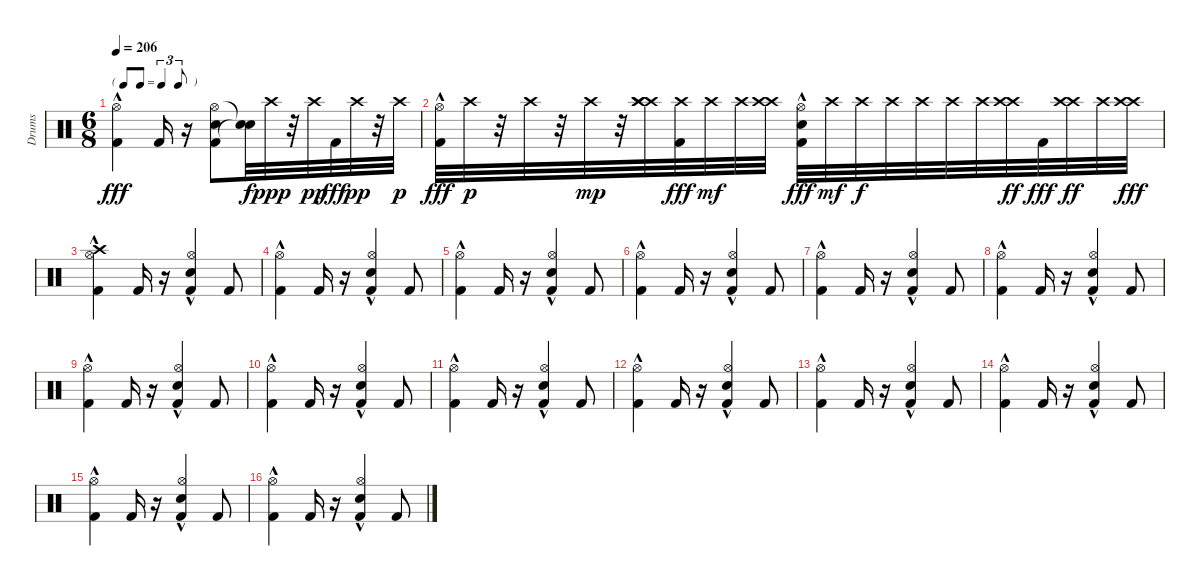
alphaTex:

\track ("Drums" "Drums") {instrument percussion}
\staff {score}
\articulation defaults
\ts (6 8)
\tf triplet8th
\tempo 206
\clef neutral
\ks c
("Kick (hit) 2"{hac} "Hi-Hat (open)").4{dy fff} "Kick (hit) 2".16 r.16 ("Kick (hit) 2" "Hi-Hat (open)" "Snare (hit) 2").8 ("Snare (hit)"{t} "Snare (hit)"{t}).32{dy f} "Crash high (hit)".32{dy ppp} r.32 "Crash high (hit)".32{dy pp} "Kick (hit) 2".32{dy fff} "Crash high (hit)".32{dy pp} r.32 "Crash high (hit)".32{dy p} |
("Hi-Hat (open)" "Kick (hit) 2"{hac}).32{dy fff} "Crash high (hit)".32{dy p} r.32 "Crash high (hit)".32 r.32 "Crash high (hit)".32{dy mp} r.32 ("Crash high (hit)" "Crash high (hit)" "Crash high (hit)").32 ("Crash high (hit)" "Kick (hit) 2").32{dy fff} "Crash high (hit)".32{dy mf} "Crash high (hit)".32 ("Crash high (hit)" "Crash high (hit)").32 ("Hi-Hat (open)" "Snare (hit) 2"{hac} "Kick (hit) 2").32{dy fff} "Crash high (hit)".32{dy mf} "Crash high (hit)".32{dy f} "Crash high (hit)".32 "Crash high (hit)".32 "Crash high (hit)".32 "Crash high (hit)".32 ("Crash high (hit)" "Crash high (hit)").32{dy ff} "Kick (hit) 2".32{dy fff} ("Crash high (hit)" "Crash high (hit)").32{dy ff} "Crash high (hit)".32 ("Crash high (hit)" "Crash high (hit)").32{dy fff} |
("Crash high (hit)" "Hi-Hat (open)" "Kick (hit) 2"{hac}).4 "Kick (hit) 2".16 r.16 ("Hi-Hat (open)" "Snare (hit) 2"{hac} "Kick (hit) 2").4 "Kick (hit) 2".8 |
("Hi-Hat (open)" "Kick (hit) 2"{hac}).4 "Kick (hit) 2".16 r.16 ("Hi-Hat (open)" "Snare (hit) 2"{hac} "Kick (hit) 2").4 "Kick (hit) 2".8 |
("Kick (hit) 2"{hac} "Hi-Hat (open)").4 "Kick (hit) 2".16 r.16 ("Kick (hit) 2" "Hi-Hat (open)" "Snare (hit) 2"{hac}).4 "Kick (hit) 2".8 |
("Hi-Hat (open)" "Kick (hit) 2"{hac}).4 "Kick (hit) 2".16 r.16 ("Hi-Hat (open)" "Snare (hit) 2"{hac} "Kick (hit) 2").4 "Kick (hit) 2".8 |
("Hi-Hat (open)" "Kick (hit) 2"{hac}).4 "Kick (hit) 2".16 r.16 ("Hi-Hat (open)" "Snare (hit) 2"{hac} "Kick (hit) 2").4 "Kick (hit) 2".8 |
("Hi-Hat (open)" "Kick (hit) 2"{hac}).4 "Kick (hit) 2".16 r.16 ("Hi-Hat (open)" "Snare (hit) 2"{hac} "Kick (hit) 2").4 "Kick (hit) 2".8 |
("Kick (hit) 2"{hac} "Hi-Hat (open)").4 "Kick (hit) 2".16 r.16 ("Kick (hit) 2" "Hi-Hat (open)" "Snare (hit) 2"{hac}).4 "Kick (hit) 2".8 |
("Hi-Hat (open)" "Kick (hit) 2"{hac}).4 "Kick (hit) 2".16 r.16 ("Hi-Hat (open)" "Snare (hit) 2"{hac} "Kick (hit) 2").4 "Kick (hit) 2".8 |
("Hi-Hat (open)" "Kick (hit) 2"{hac}).4 "Kick (hit) 2".16 r.16 ("Hi-Hat (open)" "Snare (hit) 2"{hac} "Kick (hit) 2").4 "Kick (hit) 2".8 |
("Hi-Hat (open)" "Kick (hit) 2"{hac}).4 "Kick (hit) 2".16 r.16 ("Hi-Hat (open)" "Snare (hit) 2"{hac} "Kick (hit) 2").4 "Kick (hit) 2".8 |
("Kick (hit) 2"{hac} "Hi-Hat (open)").4 "Kick (hit) 2".16 r.16 ("Kick (hit) 2" "Hi-Hat (open)" "Snare (hit) 2"{hac}).4 "Kick (hit) 2".8 |
("Hi-Hat (open)" "Kick (hit) 2"{hac}).4 "Kick (hit) 2".16 r.16 ("Hi-Hat (open)" "Snare (hit) 2"{hac} "Kick (hit) 2").4 "Kick (hit) 2".8 |
("Hi-Hat (open)" "Kick (hit) 2"{hac}).4 "Kick (hit) 2".16 r.16 ("Hi-Hat (open)" "Snare (hit) 2"{hac} "Kick (hit) 2").4 "Kick (hit) 2".8 |
("Hi-Hat (open)" "Kick (hit) 2"{hac}).4 "Kick (hit) 2".16 r.16 ("Hi-Hat (open)" "Snare (hit) 2"{hac} "Kick (hit) 2").4 "Kick (hit) 2".8
